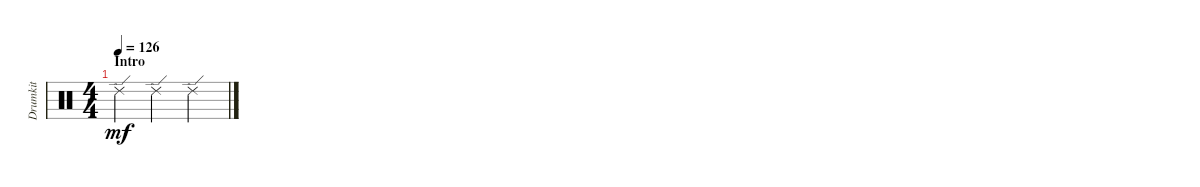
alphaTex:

\track ("Drumkit" "Drumkit") {instrument percussion}
\staff {score}
\articulation defaults
\ts (4 4)
\section ("" "Intro")
\tempo 126
\clef neutral
\ks c "Ride (edge) 2".4{dy mf} "Ride (edge) 2".4 "Ride (edge) 2".4
